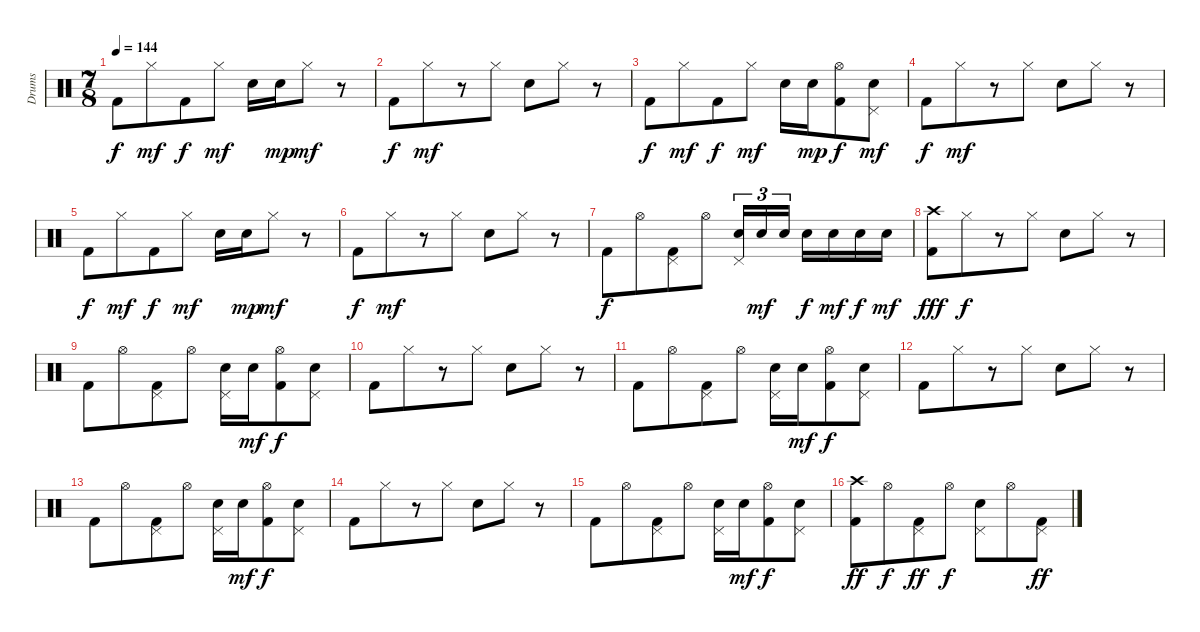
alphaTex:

\track ("Drums" "Drums") {instrument percussion}
\staff {score}
\articulation defaults
\ts (7 8)
\tempo 144
\clef neutral
\ks c "Kick (hit) 2".8{dy f} "Hi-Hat (closed)".8{dy mf} "Kick (hit) 2".8{dy f} "Hi-Hat (closed)".8{dy mf} "Snare (hit) 2".16 "Snare (hit) 2".16{dy mp} "Hi-Hat (closed)".8{dy mf}
r.8 |
"Kick (hit) 2".8{dy f} "Hi-Hat (closed)".8{dy mf} r.8 "Hi-Hat (closed)".8 "Snare (hit) 2".8 "Hi-Hat (closed)".8 r.8 |
"Kick (hit) 2".8{dy f} "Hi-Hat (closed)".8{dy mf} "Kick (hit) 2".8{dy f} "Hi-Hat (closed)".8{dy mf} "Snare (hit) 2".16 "Snare (hit) 2".16{dy mp} ("Hi-Hat (open)" "Kick (hit) 2").8{dy f} ("Pedal Hi-Hat (hit)" "Snare (hit) 2").8{dy mf} |
"Kick (hit) 2".8{dy f} "Hi-Hat (closed)".8{dy mf} r.8 "Hi-Hat (closed)".8 "Snare (hit) 2".8 "Hi-Hat (closed)".8 r.8 |
"Kick (hit) 2".8{dy f} "Hi-Hat (closed)".8{dy mf} "Kick (hit) 2".8{dy f} "Hi-Hat (closed)".8{dy mf} "Snare (hit) 2".16 "Snare (hit) 2".16{dy mp} "Hi-Hat (closed)".8{dy mf} r.8 |
"Kick (hit) 2".8{dy f} "Hi-Hat (closed)".8{dy mf} r.8 "Hi-Hat (closed)".8 "Snare (hit) 2".8 "Hi-Hat (closed)".8 r.8 |
"Kick (hit) 2".8{dy f} "Hi-Hat (open)".8 ("Pedal Hi-Hat (hit)" "Kick (hit) 2").8 "Hi-Hat (open)".8 ("Pedal Hi-Hat (hit)" "Snare (hit) 2").16{tu (3 2)} "Snare (hit) 2".16{tu (3 2) dy mf} "Snare (hit) 2".16{tu (3 2)} "Snare (hit) 2".16{dy f} "Snare (hit) 2".16{dy mf} "Snare (hit) 2".16{dy f} "Snare (hit) 2".16{dy mf} |
("Crash high (hit)" "Kick (hit) 2").8{dy fff} "Hi-Hat (closed)".8{dy f} r.8 "Hi-Hat (closed)".8 "Snare (hit) 2".8 "Hi-Hat (closed)".8 r.8 |
"Kick (hit) 2".8 "Hi-Hat (open)".8 ("Pedal Hi-Hat (hit)" "Kick (hit) 2").8 "Hi-Hat (open)".8 ("Pedal Hi-Hat (hit)" "Snare (hit) 2").16 "Snare (hit) 2".16{dy mf} ("Hi-Hat (open)" "Kick (hit) 2").8{dy f} ("Pedal Hi-Hat (hit)" "Snare (hit) 2").8 |
"Kick (hit) 2".8 "Hi-Hat (closed)".8 r.8 "Hi-Hat (closed)".8 "Snare (hit) 2".8 "Hi-Hat (closed)".8 r.8 |
"Kick (hit) 2".8 "Hi-Hat (open)".8 ("Pedal Hi-Hat (hit)" "Kick (hit) 2").8 "Hi-Hat (open)".8 ("Pedal Hi-Hat (hit)" "Snare (hit) 2").16 "Snare (hit) 2".16{dy mf} ("Hi-Hat (open)" "Kick (hit) 2").8{dy f} ("Pedal Hi-Hat (hit)" "Snare (hit) 2").8 |
"Kick (hit) 2".8 "Hi-Hat (closed)".8 r.8 "Hi-Hat (closed)".8 "Snare (hit) 2".8 "Hi-Hat (closed)".8 r.8 |
"Kick (hit) 2".8 "Hi-Hat (open)".8 ("Pedal Hi-Hat (hit)" "Kick (hit) 2").8 "Hi-Hat (open)".8 ("Pedal Hi-Hat (hit)" "Snare (hit) 2").16 "Snare (hit) 2".16{dy mf} ("Hi-Hat (open)" "Kick (hit) 2").8{dy f} ("Pedal Hi-Hat (hit)" "Snare (hit) 2").8 |
"Kick (hit) 2".8 "Hi-Hat (closed)".8 r.8 "Hi-Hat (closed)".8 "Snare (hit) 2".8 "Hi-Hat (closed)".8 r.8 |
"Kick (hit) 2".8 "Hi-Hat (open)".8 ("Pedal Hi-Hat (hit)" "Kick (hit) 2").8 "Hi-Hat (open)".8 ("Pedal Hi-Hat (hit)" "Snare (hit) 2").16 "Snare (hit) 2".16{dy mf} ("Hi-Hat (open)" "Kick (hit) 2").8{dy f} ("Pedal Hi-Hat (hit)" "Snare (hit) 2").8 |
("Crash high (hit)" "Kick (hit) 2").8{dy ff} "Hi-Hat (open)".8{dy f} ("Pedal Hi-Hat (hit)" "Kick (hit) 2").8{dy ff} "Hi-Hat (open)".8{dy f} ("Pedal Hi-Hat (hit)" "Snare (hit) 2").8 "Hi-Hat (open)".8 ("Pedal Hi-Hat (hit)" "Kick (hit) 2").8{dy ff}
